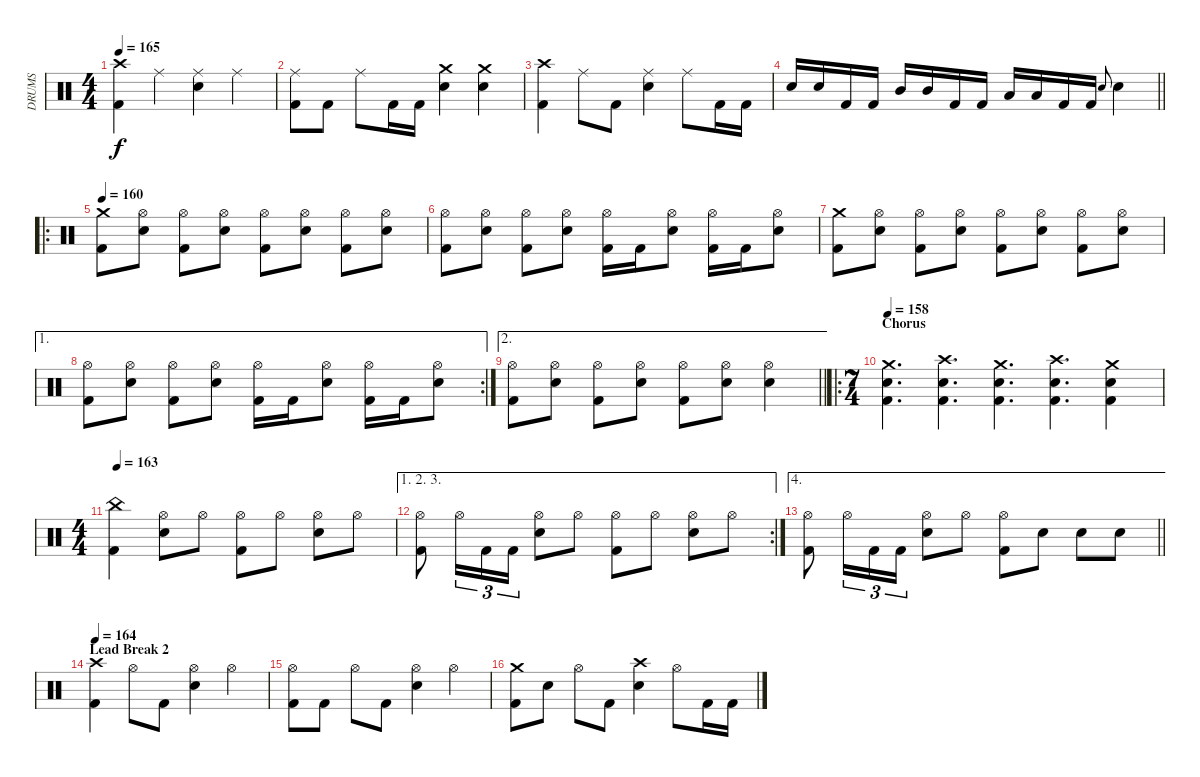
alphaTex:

\track ("DRUMS" "DRUMS") {instrument percussion}
\staff {score}
\articulation defaults
\ts (4 4)
\tempo 165
\clef neutral
\ks c
("Crash high (hit)" "Kick (hit) 2").4{dy f} "Ride (middle)".4 ("Ride (middle)" "Snare (hit) 2").4 "Ride (middle)".4 |
("Ride (middle)" "Kick (hit) 2").8 "Kick (hit) 2".8 "Ride (middle)".8 "Kick (hit) 2".16 "Kick (hit) 2".16 ("Crash medium (hit)" "Snare (hit) 2").4 ("Crash medium (hit)" "Snare (hit) 2").4 |
("Crash high (hit)" "Kick (hit) 2").4 "Ride (middle)".8 "Kick (hit) 2".8 ("Ride (middle)" "Snare (hit) 2").4 "Ride (middle)".8 "Kick (hit) 2".16 "Kick (hit) 2".16 |
\barLineRight lightlight "Snare (hit) 2".16 "Snare (hit) 2".16 "Kick (hit) 2".16 "Kick (hit) 2".16 "Mid Tom (hit)".16 "Mid Tom (hit)".16 "Kick (hit) 2".16 "Kick (hit) 2".16 "Low Tom (hit)".16 "Low Tom (hit)".16 "Kick (hit) 2".16 "Kick (hit) 2".16 "Snare (hit) 2".8{gr onbeat} "Snare (hit) 2".4
|
\ro
\tempo 160
("Crash medium (hit)" "Kick (hit) 2").8 ("Hi-Hat (open)" "Snare (hit) 2").8 ("Hi-Hat (open)" "Kick (hit) 2").8 ("Hi-Hat (open)" "Snare (hit) 2").8 ("Hi-Hat (open)" "Kick (hit) 2").8 ("Hi-Hat (open)" "Snare (hit) 2").8 ("Hi-Hat (open)" "Kick (hit) 2").8 ("Hi-Hat (open)" "Snare (hit) 2").8 |
("Hi-Hat (open)" "Kick (hit) 2").8 ("Hi-Hat (open)" "Snare (hit) 2").8 ("Hi-Hat (open)" "Kick (hit) 2").8 ("Hi-Hat (open)" "Snare (hit) 2").8 ("Hi-Hat (open)" "Kick (hit) 2").16 "Kick (hit) 2".16 ("Hi-Hat (open)" "Snare (hit) 2").8 ("Hi-Hat (open)" "Kick (hit) 2").16 "Kick (hit) 2".16 ("Hi-Hat (open)" "Snare (hit) 2").8 |
("Crash medium (hit)" "Kick (hit) 2").8 ("Hi-Hat (open)" "Snare (hit) 2").8 ("Hi-Hat (open)" "Kick (hit) 2").8 ("Hi-Hat (open)" "Snare (hit) 2").8 ("Hi-Hat (open)" "Kick (hit) 2").8 ("Hi-Hat (open)" "Snare (hit) 2").8 ("Hi-Hat (open)" "Kick (hit) 2").8 ("Hi-Hat (open)" "Snare (hit) 2").8 |
\ae 1
\rc 2
("Hi-Hat (open)" "Kick (hit) 2").8 ("Hi-Hat (open)" "Snare (hit) 2").8 ("Hi-Hat (open)" "Kick (hit) 2").8 ("Hi-Hat (open)" "Snare (hit) 2").8 ("Hi-Hat (open)" "Kick (hit) 2").16 "Kick (hit) 2".16 ("Hi-Hat (open)" "Snare (hit) 2").8 ("Hi-Hat (open)" "Kick (hit) 2").16 "Kick (hit) 2".16 ("Hi-Hat (open)" "Snare (hit) 2").8 |
\ae 2
\barLineRight lightlight
("Hi-Hat (open)" "Kick (hit) 2").8 ("Hi-Hat (open)" "Snare (hit) 2").8 ("Hi-Hat (open)" "Kick (hit) 2").8 ("Hi-Hat (open)" "Snare (hit) 2").8 ("Hi-Hat (open)" "Kick (hit) 2").8 ("Hi-Hat (open)" "Snare (hit) 2").8 ("Hi-Hat (open)" "Snare (hit) 2").4 |
\ro
\ts (7 4)
\section ("" "Chorus")
\tempo 158
("Crash medium (hit)" "Snare (hit) 2" "Kick (hit) 2").4{d} ("Crash high (hit)" "Snare (hit) 2" "Kick (hit) 2").4{d} ("Crash medium (hit)" "Snare (hit) 2" "Kick (hit) 2").4{d} ("Crash high (hit)" "Snare (hit) 2" "Kick (hit) 2").4{d} ("Crash medium (hit)" "Snare (hit) 2" "Kick (hit) 2").4 |
\ts (4 4)
\tempo 163
("China (hit)" "Kick (hit) 2").4 ("Hi-Hat (open)" "Snare (hit) 2").8 "Hi-Hat (open)".8 ("Hi-Hat (open)" "Kick (hit) 2").8 "Hi-Hat (open)".8 ("Hi-Hat (open)" "Snare (hit) 2").8 "Hi-Hat (open)".8 |
\ae (1 2 3)
\rc 2
("Hi-Hat (open)" "Kick (hit) 2").8 "Hi-Hat (open)".16{tu (3 2)} "Kick (hit) 2".16{tu (3 2)} "Kick (hit) 2".16{tu (3 2)} ("Hi-Hat (open)" "Snare (hit) 2").8 "Hi-Hat (open)".8 ("Hi-Hat (open)" "Kick (hit) 2").8 "Hi-Hat (open)".8 ("Hi-Hat (open)" "Snare (hit) 2").8 "Hi-Hat (open)".8 |
\ae 4
\barLineRight lightlight
("Hi-Hat (open)" "Kick (hit) 2").8 "Hi-Hat (open)".16{tu (3 2)} "Kick (hit) 2".16{tu (3 2)} "Kick (hit) 2".16{tu (3 2)} ("Hi-Hat (open)" "Snare (hit) 2").8 "Hi-Hat (open)".8 ("Hi-Hat (open)" "Kick (hit) 2").8 "Snare (hit) 2".8 "Snare (hit) 2".8 "Snare (hit) 2".8 |
\section ("" "Lead Break 2")
\tempo 164
("Crash high (hit)" "Kick (hit) 2").4 "Hi-Hat (open)".8 "Kick (hit) 2".8 ("Hi-Hat (open)" "Snare (hit) 2").4 "Hi-Hat (open)".4 |
("Hi-Hat (open)" "Kick (hit) 2").8 "Kick (hit) 2".8 "Hi-Hat (open)".8 "Kick (hit) 2".8 ("Hi-Hat (open)" "Snare (hit) 2").4 "Hi-Hat (open)".4 |
("Crash medium (hit)" "Kick (hit) 2").8 "Snare (hit) 2".8 "Hi-Hat (open)".8 "Kick (hit) 2".8 ("Crash high (hit)" "Snare (hit) 2").4 "Hi-Hat (open)".8 "Kick (hit) 2".16 "Kick (hit) 2".16
